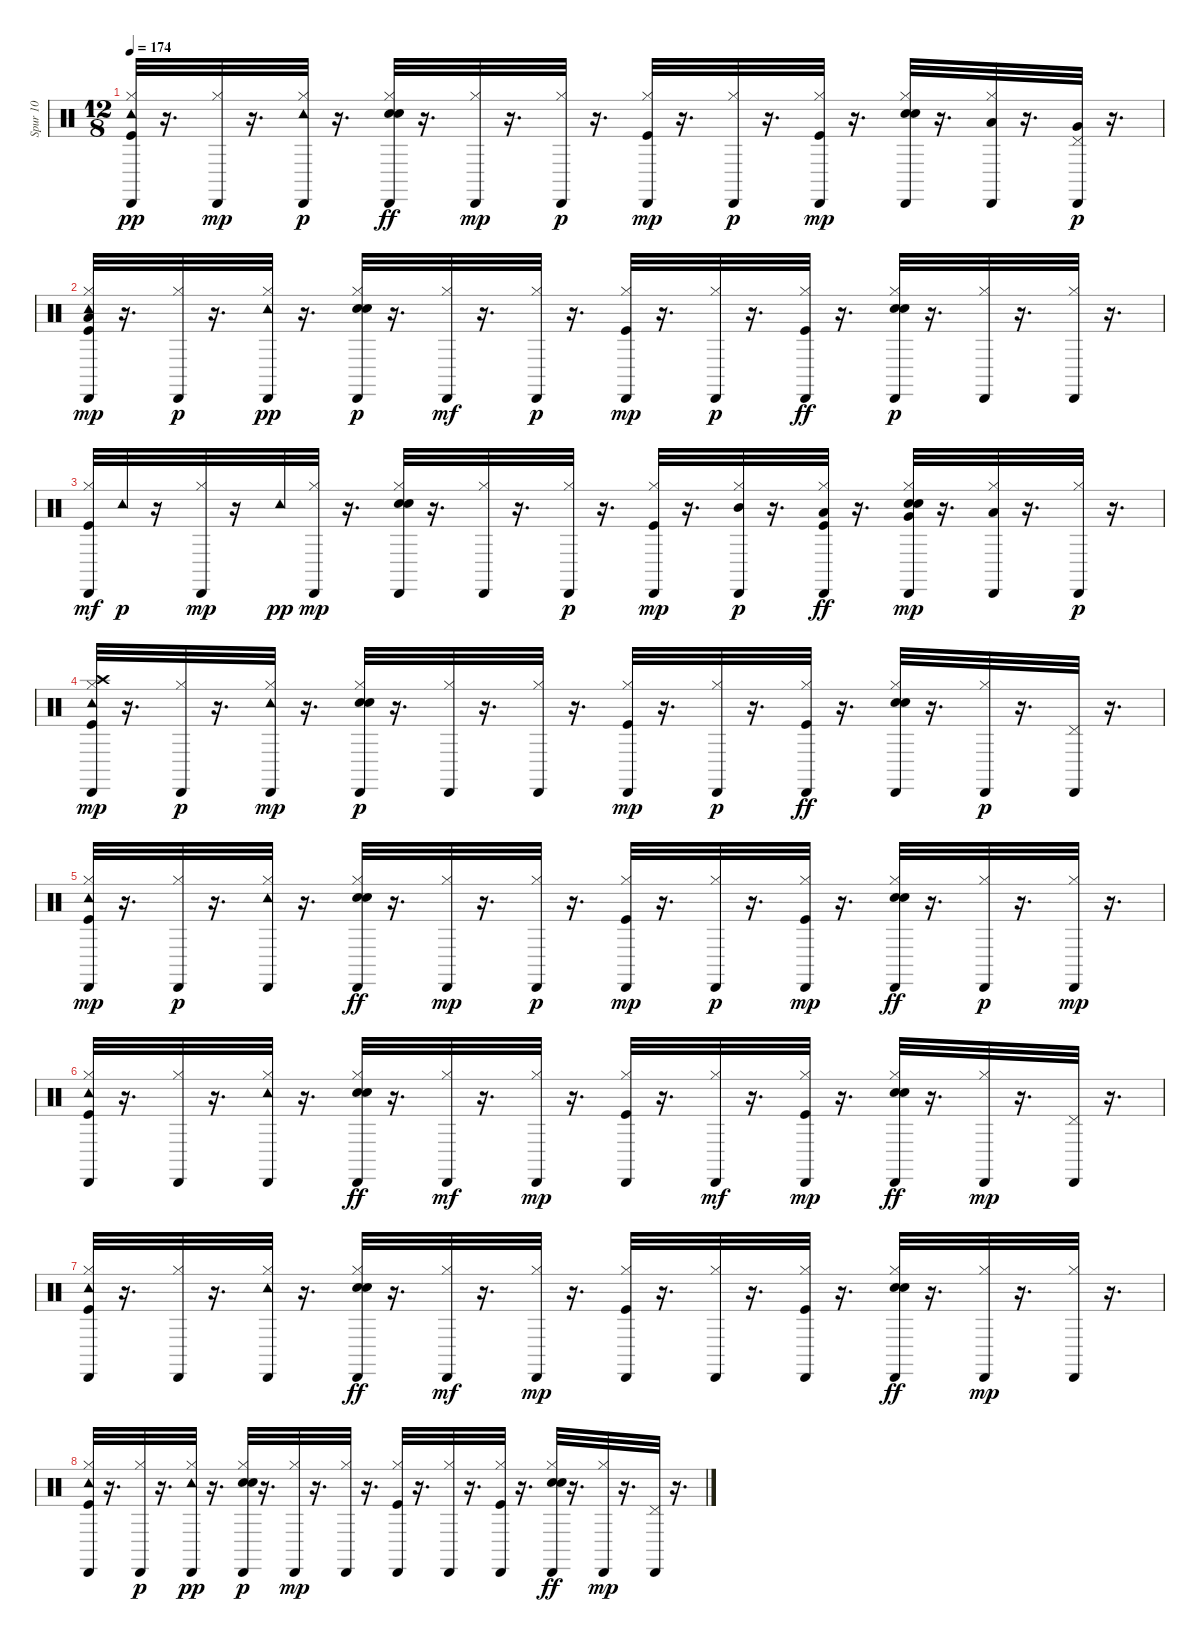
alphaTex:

\track ("Spur 10" "Spur 10") {instrument percussion}
\staff {score}
\articulation defaults
\ts (12 8)
\tempo 174
\clef neutral
\ks c
("Hi-Hat (closed)" "Kick (hit)" "Cabasa (hit)" "Tambourine (hit)").32{dy pp} r.16{d} ("Hi-Hat (closed)" "Cabasa (hit)").32{dy mp} r.16{d} ("Hi-Hat (closed)" "Cabasa (hit)" "Tambourine (hit)").32{dy p} r.16{d} ("Hi-Hat (closed)" "Cabasa (hit)" "Electric Snare (hit)" "Hand Clap (hit)").32{dy ff} r.16{d} ("Hi-Hat (closed)" "Cabasa (hit)").32{dy mp} r.16{d} ("Hi-Hat (closed)" "Cabasa (hit)").32{dy p} r.16{d} ("Hi-Hat (closed)" "Kick (hit)" "Cabasa (hit)").32{dy mp} r.16{d} ("Hi-Hat (closed)" "Cabasa (hit)").32{dy p} r.16{d} ("Hi-Hat (closed)" "Kick (hit)" "Cabasa (hit)").32{dy mp} r.16{d} ("Hi-Hat (closed)" "Electric Snare (hit)" "Hand Clap (hit)" "Cabasa (hit)").32 r.16{d} ("Hi-Hat (closed)" "Low Tom (hit)" "Cabasa (hit)").32 r.16{d} ("Pedal Hi-Hat (hit)" "Very Low Tom (hit)" "Cabasa (hit)").32{dy p} r.16{d} |
("Tambourine (hit)" "Hi-Hat (closed)" "Kick (hit)" "Low Floor Tom (hit)" "Cabasa (hit)").32{dy mp} r.16{d} ("Hi-Hat (closed)" "Cabasa (hit)").32{dy p} r.16{d} ("Hi-Hat (closed)" "Cabasa (hit)" "Tambourine (hit)").32{dy pp} r.16{d} ("Electric Snare (hit)" "Hand Clap (hit)" "Hi-Hat (closed)" "Cabasa (hit)").32{dy p} r.16{d} ("Cabasa (hit)" "Hi-Hat (closed)").32{dy mf} r.16{d} ("Hi-Hat (closed)" "Cabasa (hit)").32{dy p} r.16{d} ("Kick (hit)" "Cabasa (hit)" "Hi-Hat (closed)").32{dy mp} r.16{d} ("Hi-Hat (closed)" "Cabasa (hit)").32{dy p} r.16{d} ("Hi-Hat (closed)" "Cabasa (hit)" "Kick (hit)").32{dy ff} r.16{d} ("Hi-Hat (closed)" "Electric Snare (hit)" "Hand Clap (hit)" "Cabasa (hit)").32{dy p} r.16{d} ("Hi-Hat (closed)" "Cabasa (hit)").32 r.16{d} ("Hi-Hat (closed)" "Cabasa (hit)").32 r.16{d} |
("Kick (hit)" "Cabasa (hit)" "Hi-Hat (closed)").32{dy mf} "Tambourine (hit)".32{dy p} r.16 ("Cabasa (hit)" "Hi-Hat (closed)").32{dy mp} r.16 "Tambourine (hit)".32{dy pp} ("Cabasa (hit)" "Hi-Hat (closed)").32{dy mp} r.16{d} ("Hand Clap (hit)" "Cabasa (hit)" "Electric Snare (hit)" "Hi-Hat (closed)").32 r.16{d} ("Cabasa (hit)" "Hi-Hat (closed)").32 r.16{d} ("Cabasa (hit)" "Hi-Hat (closed)").32{dy p} r.16{d} ("Hi-Hat (closed)" "Kick (hit)" "Cabasa (hit)").32{dy mp} r.16{d} ("Hi-Hat (closed)" "Mid Tom (hit)" "Cabasa (hit)").32{dy p} r.16{d} ("Hi-Hat (closed)" "Cabasa (hit)" "Kick (hit)" "Low Tom (hit)").32{dy ff} r.16{d} ("Electric Snare (hit)" "Hand Clap (hit)" "Hi-Hat (closed)" "Very Low Tom (hit)" "Cabasa (hit)").32{dy mp} r.16{d} ("Hi-Hat (closed)" "Low Floor Tom (hit)" "Cabasa (hit)").32 r.16{d} ("Hi-Hat (closed)" "Cabasa (hit)").32{dy p} r.16{d} |
("Tambourine (hit)" "Hi-Hat (closed)" "Kick (hit)" "Crash high (hit)" "Cabasa (hit)").32{dy mp} r.16{d} ("Hi-Hat (closed)" "Cabasa (hit)").32{dy p} r.16{d} ("Tambourine (hit)" "Hi-Hat (closed)" "Cabasa (hit)").32{dy mp} r.16{d} ("Hi-Hat (closed)" "Hand Clap (hit)" "Electric Snare (hit)" "Cabasa (hit)").32{dy p} r.16{d} ("Hi-Hat (closed)" "Cabasa (hit)").32 r.16{d} ("Hi-Hat (closed)" "Cabasa (hit)").32 r.16{d} ("Hi-Hat (closed)" "Kick (hit)" "Cabasa (hit)").32{dy mp} r.16{d} ("Hi-Hat (closed)" "Cabasa (hit)").32{dy p} r.16{d} ("Hi-Hat (closed)" "Cabasa (hit)" "Kick (hit)").32{dy ff} r.16{d} ("Hi-Hat (closed)" "Hand Clap (hit)" "Cabasa (hit)" "Electric Snare (hit)").32 r.16{d} ("Hi-Hat (closed)" "Cabasa (hit)").32{dy p} r.16{d} ("Pedal Hi-Hat (hit)" "Cabasa (hit)").32 r.16{d} |
("Tambourine (hit)" "Hi-Hat (closed)" "Kick (hit)" "Cabasa (hit)").32{dy mp} r.16{d} ("Hi-Hat (closed)" "Cabasa (hit)").32{dy p} r.16{d} ("Tambourine (hit)" "Hi-Hat (closed)" "Cabasa (hit)").32 r.16{d} ("Hi-Hat (closed)" "Cabasa (hit)" "Hand Clap (hit)" "Electric Snare (hit)").32{dy ff} r.16{d} ("Hi-Hat (closed)" "Cabasa (hit)").32{dy mp} r.16{d} ("Hi-Hat (closed)" "Cabasa (hit)").32{dy p} r.16{d} ("Hi-Hat (closed)" "Kick (hit)" "Cabasa (hit)").32{dy mp} r.16{d} ("Hi-Hat (closed)" "Cabasa (hit)").32{dy p} r.16{d} ("Hi-Hat (closed)" "Kick (hit)" "Cabasa (hit)").32{dy mp} r.16{d} ("Hi-Hat (closed)" "Cabasa (hit)" "Hand Clap (hit)" "Electric Snare (hit)").32{dy ff} r.16{d} ("Hi-Hat (closed)" "Cabasa (hit)").32{dy p} r.16{d} ("Hi-Hat (closed)" "Cabasa (hit)").32{dy mp} r.16{d} |
("Tambourine (hit)" "Hi-Hat (closed)" "Kick (hit)" "Cabasa (hit)").32 r.16{d} ("Cabasa (hit)" "Hi-Hat (closed)").32 r.16{d} ("Tambourine (hit)" "Cabasa (hit)" "Hi-Hat (closed)").32 r.16{d} ("Cabasa (hit)" "Hi-Hat (closed)" "Hand Clap (hit)" "Electric Snare (hit)").32{dy ff} r.16{d} ("Cabasa (hit)" "Hi-Hat (closed)").32{dy mf} r.16{d} ("Hi-Hat (closed)" "Cabasa (hit)").32{dy mp} r.16{d} ("Cabasa (hit)" "Hi-Hat (closed)" "Kick (hit)").32 r.16{d} ("Cabasa (hit)" "Hi-Hat (closed)").32{dy mf} r.16{d} ("Cabasa (hit)" "Hi-Hat (closed)" "Kick (hit)").32{dy mp} r.16{d} ("Hi-Hat (closed)" "Hand Clap (hit)" "Cabasa (hit)" "Electric Snare (hit)").32{dy ff} r.16{d} ("Hi-Hat (closed)" "Cabasa (hit)").32{dy mp} r.16{d} ("Pedal Hi-Hat (hit)" "Cabasa (hit)").32 r.16{d} |
("Tambourine (hit)" "Hi-Hat (closed)" "Kick (hit)" "Cabasa (hit)").32 r.16{d} ("Cabasa (hit)" "Hi-Hat (closed)").32 r.16{d} ("Tambourine (hit)" "Hi-Hat (closed)" "Cabasa (hit)").32 r.16{d} ("Cabasa (hit)" "Hi-Hat (closed)" "Electric Snare (hit)" "Hand Clap (hit)").32{dy ff} r.16{d} ("Cabasa (hit)" "Hi-Hat (closed)").32{dy mf} r.16{d} ("Hi-Hat (closed)" "Cabasa (hit)").32{dy mp} r.16{d} ("Kick (hit)" "Hi-Hat (closed)" "Cabasa (hit)").32 r.16{d} ("Cabasa (hit)" "Hi-Hat (closed)").32 r.16{d} ("Kick (hit)" "Hi-Hat (closed)" "Cabasa (hit)").32 r.16{d} ("Hand Clap (hit)" "Cabasa (hit)" "Hi-Hat (closed)" "Electric Snare (hit)").32{dy ff} r.16{d} ("Hi-Hat (closed)" "Cabasa (hit)").32{dy mp} r.16{d} ("Hi-Hat (closed)" "Cabasa (hit)").32 r.16{d} |
("Hi-Hat (closed)" "Kick (hit)" "Tambourine (hit)" "Cabasa (hit)").32 r.16{d} ("Hi-Hat (closed)" "Cabasa (hit)").32{dy p} r.16{d} ("Hi-Hat (closed)" "Cabasa (hit)" "Tambourine (hit)").32{dy pp} r.16{d} ("Hi-Hat (closed)" "Hand Clap (hit)" "Electric Snare (hit)" "Cabasa (hit)").32{dy p} r.16{d} ("Hi-Hat (closed)" "Cabasa (hit)").32{dy mp} r.16{d} ("Hi-Hat (closed)" "Cabasa (hit)").32 r.16{d} ("Hi-Hat (closed)" "Kick (hit)" "Cabasa (hit)").32 r.16{d} ("Cabasa (hit)" "Hi-Hat (closed)").32 r.16{d} ("Hi-Hat (closed)" "Cabasa (hit)" "Kick (hit)").32 r.16{d} ("Hi-Hat (closed)" "Hand Clap (hit)" "Cabasa (hit)" "Electric Snare (hit)").32{dy ff} r.16{d} ("Hi-Hat (closed)" "Cabasa (hit)").32{dy mp} r.16{d} ("Pedal Hi-Hat (hit)" "Cabasa (hit)").32 r.16{d}
